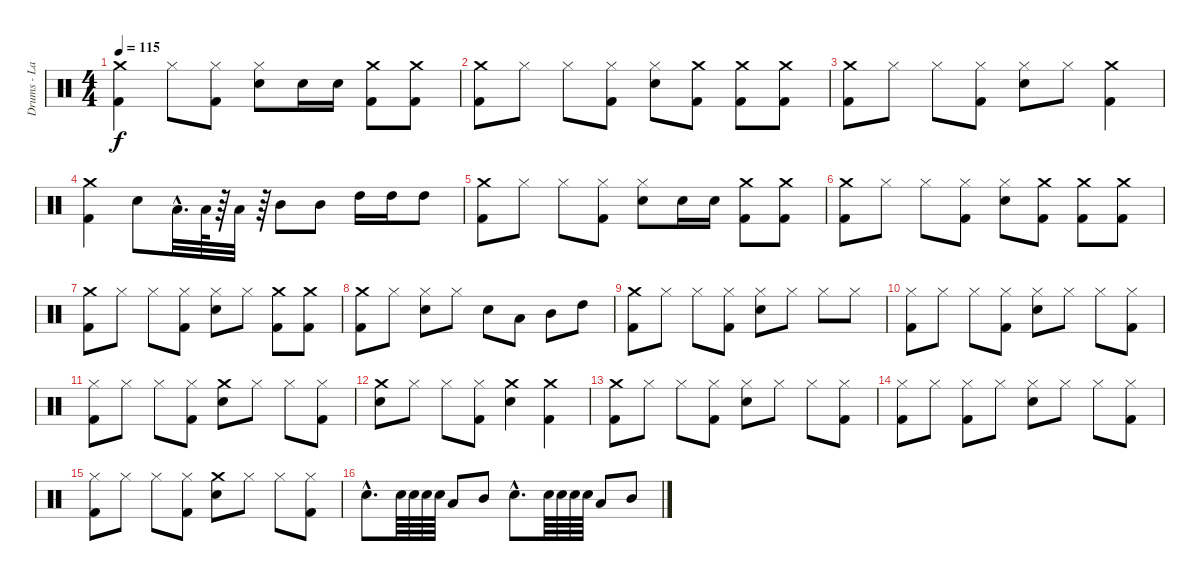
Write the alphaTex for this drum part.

\track ("Drums - Lars" "Drums - La") {instrument percussion}
\staff {score}
\articulation defaults
\ts (4 4)
\tempo 115
\clef neutral
\ks c
("Kick (hit) 2" "Crash medium (hit)").4{dy f} "Hi-Hat (closed)".8 ("Kick (hit) 2" "Hi-Hat (closed)").8 ("Snare (hit) 2" "Hi-Hat (closed)").8 "Snare (hit) 2".16 "Snare (hit) 2".16 ("Crash medium (hit)" "Kick (hit) 2").8 ("Crash medium (hit)" "Kick (hit) 2").8 |
("Kick (hit) 2" "Crash medium (hit)").8 "Hi-Hat (closed)".8 "Hi-Hat (closed)".8 ("Kick (hit) 2" "Hi-Hat (closed)").8 ("Snare (hit) 2" "Hi-Hat (closed)").8 ("Kick (hit) 2" "Crash medium (hit)").8 ("Kick (hit) 2" "Crash medium (hit)").8 ("Kick (hit) 2" "Crash medium (hit)").8 |
("Kick (hit) 2" "Crash medium (hit)").8 "Hi-Hat (closed)".8 "Hi-Hat (closed)".8 ("Kick (hit) 2" "Hi-Hat (closed)").8 ("Snare (hit) 2" "Hi-Hat (closed)").8 "Hi-Hat (closed)".8 ("Crash medium (hit)" "Kick (hit) 2").4 |
("Kick (hit) 2" "Crash medium (hit)").4 "Snare (hit) 2".8 "Low Tom (hit)"{hac}.32{d} "Low Tom (hit)".64 r.64 "Low Tom (hit)".32 r.64 "Mid Tom (hit)".8 "Mid Tom (hit)".8 "High Tom (hit)".16 "High Tom (hit)".16 "High Tom (hit)".8 |
("Kick (hit) 2" "Crash medium (hit)").8 "Hi-Hat (closed)".8 "Hi-Hat (closed)".8 ("Kick (hit) 2" "Hi-Hat (closed)").8 ("Snare (hit) 2" "Hi-Hat (closed)").8 "Snare (hit) 2".16 "Snare (hit) 2".16 ("Kick (hit) 2" "Crash medium (hit)").8 ("Kick (hit) 2" "Crash medium (hit)").8 |
("Crash medium (hit)" "Kick (hit) 2").8 "Hi-Hat (closed)".8 "Hi-Hat (closed)".8 ("Kick (hit) 2" "Hi-Hat (closed)").8 ("Snare (hit) 2" "Hi-Hat (closed)").8 ("Kick (hit) 2" "Crash medium (hit)").8 ("Kick (hit) 2" "Crash medium (hit)").8 ("Kick (hit) 2" "Crash medium (hit)").8 |
("Crash medium (hit)" "Kick (hit) 2").8 "Hi-Hat (closed)".8 "Hi-Hat (closed)".8 ("Kick (hit) 2" "Hi-Hat (closed)").8 ("Snare (hit) 2" "Hi-Hat (closed)").8 "Hi-Hat (closed)".8 ("Kick (hit) 2" "Crash medium (hit)").8 ("Kick (hit) 2" "Crash medium (hit)").8 |
("Kick (hit) 2" "Crash medium (hit)").8 "Hi-Hat (closed)".8 ("Snare (hit) 2" "Hi-Hat (closed)").8 "Hi-Hat (closed)".8 "Snare (hit) 2".8 "Low Tom (hit)".8 "Mid Tom (hit)".8 "High Tom (hit)".8 |
("Crash medium (hit)" "Kick (hit) 2").8 "Hi-Hat (closed)".8 "Hi-Hat (closed)".8 ("Kick (hit) 2" "Hi-Hat (closed)").8 ("Snare (hit) 2" "Hi-Hat (closed)").8 "Hi-Hat (closed)".8 "Hi-Hat (closed)".8 "Hi-Hat (closed)".8 |
("Hi-Hat (closed)" "Kick (hit) 2").8 "Hi-Hat (closed)".8 "Hi-Hat (closed)".8 ("Kick (hit) 2" "Hi-Hat (closed)").8 ("Hi-Hat (closed)" "Snare (hit) 2").8 "Hi-Hat (closed)".8 "Hi-Hat (closed)".8 ("Kick (hit) 2" "Hi-Hat (closed)").8 |
("Hi-Hat (closed)" "Kick (hit) 2").8 "Hi-Hat (closed)".8 "Hi-Hat (closed)".8 ("Kick (hit) 2" "Hi-Hat (closed)").8 ("Crash medium (hit)" "Snare (hit) 2").8 "Hi-Hat (closed)".8 "Hi-Hat (closed)".8 ("Kick (hit) 2" "Hi-Hat (closed)").8 |
("Snare (hit) 2" "Crash medium (hit)").8 "Hi-Hat (closed)".8 "Hi-Hat (closed)".8 ("Kick (hit) 2" "Hi-Hat (closed)").8 ("Snare (hit) 2" "Crash medium (hit)").4 ("Crash medium (hit)" "Kick (hit) 2").4 |
("Crash medium (hit)" "Kick (hit) 2").8 "Hi-Hat (closed)".8 "Hi-Hat (closed)".8 ("Kick (hit) 2" "Hi-Hat (closed)").8 ("Snare (hit) 2" "Hi-Hat (closed)").8 "Hi-Hat (closed)".8 "Hi-Hat (closed)".8 ("Kick (hit) 2" "Hi-Hat (closed)").8 |
("Kick (hit) 2" "Hi-Hat (closed)").8 "Hi-Hat (closed)".8 ("Kick (hit) 2" "Hi-Hat (closed)").8 "Hi-Hat (closed)".8 ("Snare (hit) 2" "Hi-Hat (closed)").8 "Hi-Hat (closed)".8 "Hi-Hat (closed)".8 ("Kick (hit) 2" "Hi-Hat (closed)").8 |
("Kick (hit) 2" "Hi-Hat (closed)").8 "Hi-Hat (closed)".8 "Hi-Hat (closed)".8 ("Kick (hit) 2" "Hi-Hat (closed)").8 ("Snare (hit) 2" "Crash medium (hit)").8 "Hi-Hat (closed)".8 "Hi-Hat (closed)".8 ("Kick (hit) 2" "Hi-Hat (closed)").8 |
"Snare (hit) 2"{hac}.8{d} "Snare (hit) 2".64 "Snare (hit) 2".64 "Snare (hit) 2".64 "Snare (hit) 2".64 "Low Tom (hit)".8 "Mid Tom (hit)".8 "Snare (hit) 2"{hac}.8{d} "Snare (hit) 2".64 "Snare (hit) 2".64 "Snare (hit) 2".64 "Snare (hit) 2".64 "Low Tom (hit)".8 "Mid Tom (hit)".8
